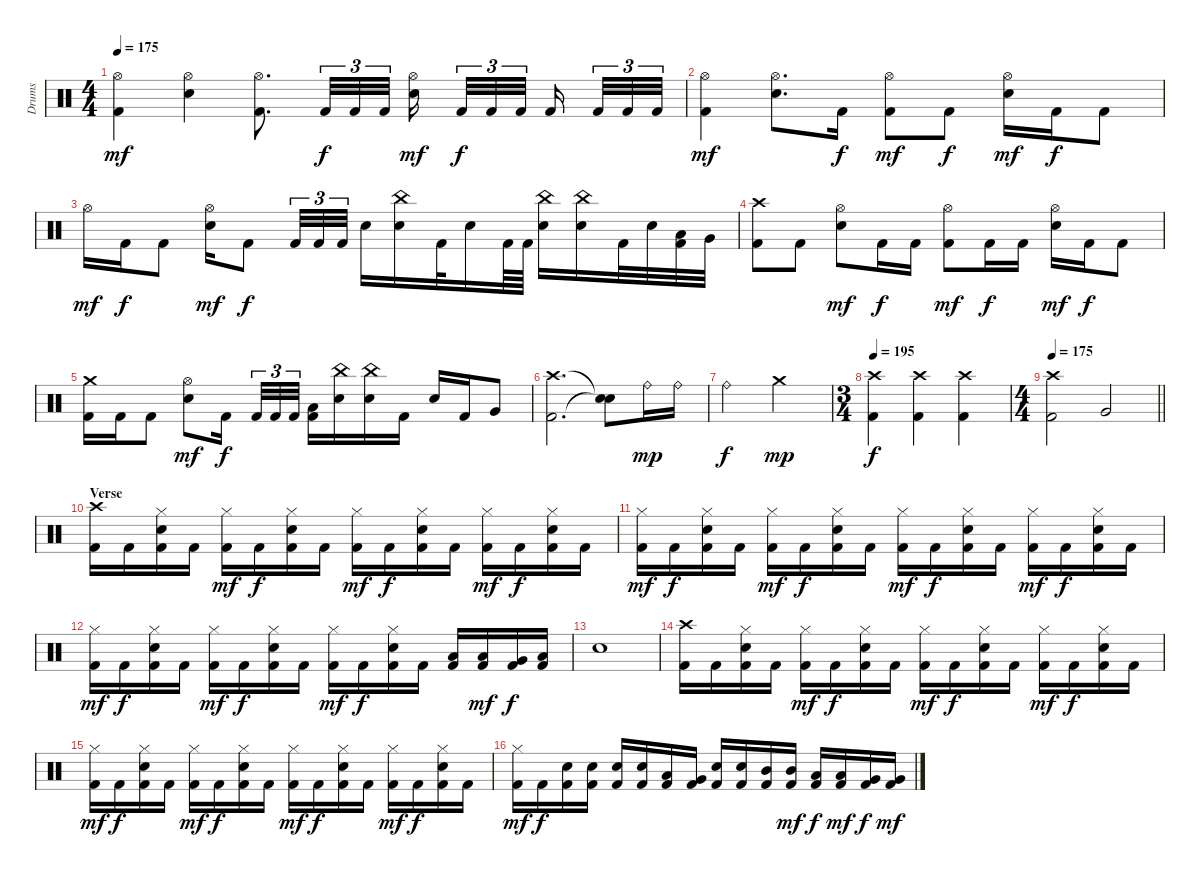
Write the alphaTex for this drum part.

\track ("Drums" "Drums") {instrument percussion}
\staff {score}
\articulation defaults
\ts (4 4)
\tempo 175
\clef neutral
\ks c
("Kick (hit) 2" "Hi-Hat (open)").4{dy mf} ("Hi-Hat (open)" "Electric Snare (hit)").4 ("Kick (hit) 2" "Hi-Hat (open)").8{d} "Kick (hit) 2".32{tu (3 2) dy f} "Kick (hit) 2".32{tu (3 2)} "Kick (hit) 2".32{tu (3 2)} ("Hi-Hat (open)" "Electric Snare (hit)").16{dy mf beam splitsecondary} "Kick (hit) 2".32{tu (3 2) dy f} "Kick (hit) 2".32{tu (3 2)} "Kick (hit) 2".32{tu (3 2) beam splitsecondary} "Kick (hit) 2".16{beam splitsecondary} "Kick (hit) 2".32{tu (3 2)} "Kick (hit) 2".32{tu (3 2)} "Kick (hit) 2".32{tu (3 2)} |
("Kick (hit) 2" "Hi-Hat (open)").4{dy mf} ("Hi-Hat (open)" "Electric Snare (hit)").8{d} "Kick (hit) 2".16{dy f} ("Kick (hit) 2" "Hi-Hat (open)").8{dy mf} "Kick (hit) 2".8{dy f} ("Hi-Hat (open)" "Electric Snare (hit)").16{dy mf} "Kick (hit) 2".16{dy f} "Kick (hit) 2".8 |
"Hi-Hat (open)".16{dy mf} "Kick (hit) 2".16{dy f} "Kick (hit) 2".8 ("Hi-Hat (open)" "Electric Snare (hit)").16{dy mf} "Kick (hit) 2".8{dy f} "Kick (hit) 2".32{tu (3 2)} "Kick (hit) 2".32{tu (3 2)} "Kick (hit) 2".32{tu (3 2)} "Electric Snare (hit)".16 ("China (hit)" "Electric Snare (hit)").16 "Kick (hit) 2".32 "Electric Snare (hit)".16 "Kick (hit) 2".64 "Kick (hit) 2".64 ("China (hit)" "Electric Snare (hit)").16 ("China (hit)" "Electric Snare (hit)").16 "Kick (hit) 2".32 "Electric Snare (hit)".32 ("Kick (hit) 2" "Low Tom (hit)").32 "Very Low Tom (hit)".32 |
("Kick (hit) 2" "Crash high (hit)").8 "Kick (hit) 2".8 ("Hi-Hat (open)" "Electric Snare (hit)").8{dy mf} "Kick (hit) 2".16{dy f} "Kick (hit) 2".16 ("Kick (hit) 2" "Hi-Hat (open)").8{dy mf} "Kick (hit) 2".16{dy f} "Kick (hit) 2".16 ("Hi-Hat (open)" "Electric Snare (hit)").16{dy mf} "Kick (hit) 2".16{dy f} "Kick (hit) 2".8 |
("Kick (hit) 2" "Crash medium (hit)").16 "Kick (hit) 2".16 "Kick (hit) 2".8 ("Hi-Hat (open)" "Electric Snare (hit)").8{dy mf} "Kick (hit) 2".16{dy f beam splitsecondary} "Kick (hit) 2".32{tu (3 2)} "Kick (hit) 2".32{tu (3 2)} "Kick (hit) 2".32{tu (3 2)} ("Kick (hit) 2" "Low Tom (hit)").16 ("China (hit)" "Electric Snare (hit)").16 ("China (hit)" "Electric Snare (hit)").16 "Kick (hit) 2".16 "Electric Snare (hit)".16 "Kick (hit) 2".16 "Very Low Tom (hit)".8 |
("Kick (hit) 2" "Crash high (hit)").2{d} ("Snare (hit)"{t} "Snare (hit)"{t}).8 "Ride (bell)".16{dy mp} "Ride (bell)".16 |
"Ride (bell)".2{dy f} "Crash medium (hit)".2{dy mp} |
\ts (3 4)
\tempo 195
("Kick (hit) 2" "Crash high (hit)").4{dy f} ("Kick (hit) 2" "Crash high (hit)").4 ("Kick (hit) 2" "Crash high (hit)").4 |
\ts (4 4)
\tempo 175
\barLineRight lightlight
("Kick (hit) 2" "Crash high (hit)").2 "Very Low Tom (hit)".2 |
\section ("" "Verse")
("Kick (hit) 2" "Crash high (hit)").16 "Kick (hit) 2".16 ("Kick (hit) 2" "Hi-Hat (closed)" "Electric Snare (hit)").16 "Kick (hit) 2".16 ("Kick (hit) 2" "Hi-Hat (closed)").16{dy mf} "Kick (hit) 2".16{dy f} ("Kick (hit) 2" "Hi-Hat (closed)" "Electric Snare (hit)").16 "Kick (hit) 2".16 ("Kick (hit) 2" "Hi-Hat (closed)").16{dy mf} "Kick (hit) 2".16{dy f} ("Kick (hit) 2" "Hi-Hat (closed)" "Electric Snare (hit)").16 "Kick (hit) 2".16 ("Kick (hit) 2" "Hi-Hat (closed)").16{dy mf} "Kick (hit) 2".16{dy f} ("Kick (hit) 2" "Hi-Hat (closed)" "Electric Snare (hit)").16 "Kick (hit) 2".16 |
("Kick (hit) 2" "Hi-Hat (closed)").16{dy mf} "Kick (hit) 2".16{dy f} ("Kick (hit) 2" "Hi-Hat (closed)" "Electric Snare (hit)").16 "Kick (hit) 2".16 ("Kick (hit) 2" "Hi-Hat (closed)").16{dy mf} "Kick (hit) 2".16{dy f} ("Kick (hit) 2" "Hi-Hat (closed)" "Electric Snare (hit)").16 "Kick (hit) 2".16 ("Kick (hit) 2" "Hi-Hat (closed)").16{dy mf} "Kick (hit) 2".16{dy f} ("Kick (hit) 2" "Hi-Hat (closed)" "Electric Snare (hit)").16 "Kick (hit) 2".16 ("Kick (hit) 2" "Hi-Hat (closed)").16{dy mf} "Kick (hit) 2".16{dy f} ("Kick (hit) 2" "Hi-Hat (closed)" "Electric Snare (hit)").16 "Kick (hit) 2".16 |
("Kick (hit) 2" "Hi-Hat (closed)").16{dy mf} "Kick (hit) 2".16{dy f} ("Kick (hit) 2" "Hi-Hat (closed)" "Electric Snare (hit)").16 "Kick (hit) 2".16 ("Kick (hit) 2" "Hi-Hat (closed)").16{dy mf} "Kick (hit) 2".16{dy f} ("Kick (hit) 2" "Hi-Hat (closed)" "Electric Snare (hit)").16 "Kick (hit) 2".16 ("Kick (hit) 2" "Hi-Hat (closed)").16{dy mf} "Kick (hit) 2".16{dy f} ("Kick (hit) 2" "Hi-Hat (closed)" "Electric Snare (hit)").16 "Kick (hit) 2".16 ("Kick (hit) 2" "Low Tom (hit)").16 ("Kick (hit) 2" "Low Tom (hit)").16{dy mf} ("Kick (hit) 2" "Very Low Tom (hit)").16{dy f} ("Kick (hit) 2" "Low Floor Tom (hit)").16 |
"Electric Snare (hit)".1 |
("Kick (hit) 2" "Crash high (hit)").16 "Kick (hit) 2".16 ("Kick (hit) 2" "Hi-Hat (closed)" "Electric Snare (hit)").16 "Kick (hit) 2".16 ("Kick (hit) 2" "Hi-Hat (closed)").16{dy mf} "Kick (hit) 2".16{dy f} ("Kick (hit) 2" "Hi-Hat (closed)" "Electric Snare (hit)").16 "Kick (hit) 2".16 ("Kick (hit) 2" "Hi-Hat (closed)").16{dy mf} "Kick (hit) 2".16{dy f} ("Kick (hit) 2" "Hi-Hat (closed)" "Electric Snare (hit)").16 "Kick (hit) 2".16 ("Kick (hit) 2" "Hi-Hat (closed)").16{dy mf} "Kick (hit) 2".16{dy f} ("Kick (hit) 2" "Hi-Hat (closed)" "Electric Snare (hit)").16 "Kick (hit) 2".16 |
("Kick (hit) 2" "Hi-Hat (closed)").16{dy mf} "Kick (hit) 2".16{dy f} ("Kick (hit) 2" "Hi-Hat (closed)" "Electric Snare (hit)").16 "Kick (hit) 2".16 ("Kick (hit) 2" "Hi-Hat (closed)").16{dy mf} "Kick (hit) 2".16{dy f} ("Kick (hit) 2" "Hi-Hat (closed)" "Electric Snare (hit)").16 "Kick (hit) 2".16 ("Kick (hit) 2" "Hi-Hat (closed)").16{dy mf} "Kick (hit) 2".16{dy f} ("Kick (hit) 2" "Hi-Hat (closed)" "Electric Snare (hit)").16 "Kick (hit) 2".16 ("Kick (hit) 2" "Hi-Hat (closed)").16{dy mf} "Kick (hit) 2".16{dy f} ("Kick (hit) 2" "Hi-Hat (closed)" "Electric Snare (hit)").16 "Kick (hit) 2".16 |
("Kick (hit) 2" "Hi-Hat (closed)").16{dy mf} "Kick (hit) 2".16{dy f} ("Kick (hit) 2" "Electric Snare (hit)").16 ("Kick (hit) 2" "Electric Snare (hit)").16 ("Kick (hit) 2" "Electric Snare (hit)").16 ("Kick (hit) 2" "Electric Snare (hit)").16 ("Kick (hit) 2" "Low Tom (hit)").16 ("Kick (hit) 2" "Very Low Tom (hit)").16 ("Kick (hit) 2" "Electric Snare (hit)").16 ("Kick (hit) 2" "Electric Snare (hit)").16 ("Kick (hit) 2" "Mid Tom (hit)").16 ("Kick (hit) 2" "Mid Tom (hit)").16{dy mf} ("Kick (hit) 2" "Low Tom (hit)").16{dy f} ("Kick (hit) 2" "Low Tom (hit)").16{dy mf} ("Kick (hit) 2" "Very Low Tom (hit)").16{dy f} ("Kick (hit) 2" "Very Low Tom (hit)").16{dy mf}
